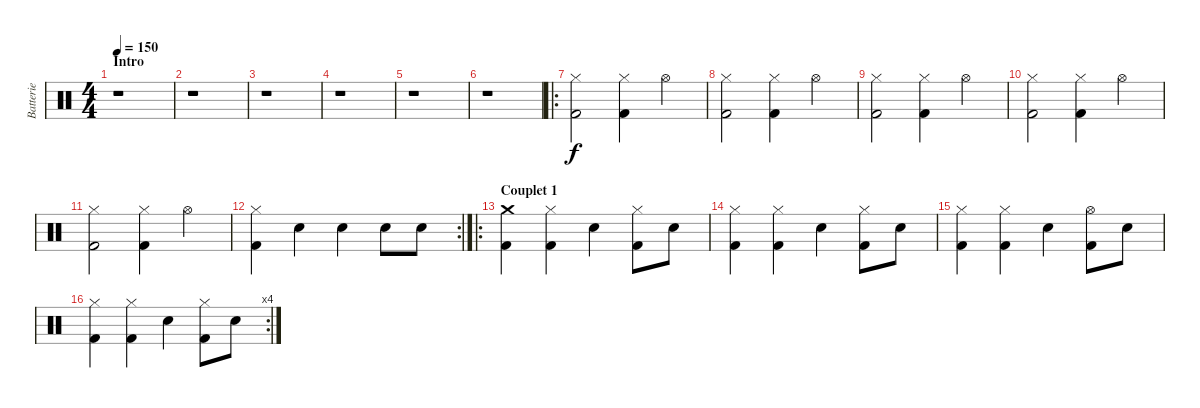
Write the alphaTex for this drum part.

\track ("Batterie" "Batterie") {instrument percussion}
\staff {score}
\articulation defaults
\ts (4 4)
\section ("" "Intro")
\tempo 150
\clef neutral
\ks c
r.1{dy f} |
r.1 |
r.1 |
r.1 |
r.1 |
r.1 |
\ro
("Hi-Hat (closed)" "Kick (hit) 2").2 ("Hi-Hat (closed)" "Kick (hit) 2").4 "Hi-Hat (open)".4 |
("Hi-Hat (closed)" "Kick (hit) 2").2 ("Hi-Hat (closed)" "Kick (hit) 2").4 "Hi-Hat (open)".4 |
("Hi-Hat (closed)" "Kick (hit) 2").2 ("Hi-Hat (closed)" "Kick (hit) 2").4 "Hi-Hat (open)".4 |
("Hi-Hat (closed)" "Kick (hit) 2").2 ("Hi-Hat (closed)" "Kick (hit) 2").4 "Hi-Hat (open)".4 |
("Hi-Hat (closed)" "Kick (hit) 2").2 ("Hi-Hat (closed)" "Kick (hit) 2").4 "Hi-Hat (open)".4 |
\rc 2
("Hi-Hat (closed)" "Kick (hit) 2").4 "Snare (hit) 2".4 "Snare (hit) 2".4 "Snare (hit) 2".8 "Snare (hit) 2".8 |
\ro
\section ("" "Couplet 1")
("Crash medium (hit)" "Kick (hit) 2").4 ("Hi-Hat (closed)" "Kick (hit) 2").4 "Snare (hit) 2".4 ("Hi-Hat (closed)" "Kick (hit) 2").8 "Snare (hit) 2".8 |
("Hi-Hat (closed)" "Kick (hit) 2").4 ("Hi-Hat (closed)" "Kick (hit) 2").4 "Snare (hit) 2".4 ("Hi-Hat (closed)" "Kick (hit) 2").8 "Snare (hit) 2".8 |
("Hi-Hat (closed)" "Kick (hit) 2").4 ("Hi-Hat (closed)" "Kick (hit) 2").4 "Snare (hit) 2".4 ("Hi-Hat (open)" "Kick (hit) 2").8 "Snare (hit) 2".8 |
\rc 4
("Hi-Hat (closed)" "Kick (hit) 2").4 ("Hi-Hat (closed)" "Kick (hit) 2").4 "Snare (hit) 2".4 ("Hi-Hat (closed)" "Kick (hit) 2").8 "Snare (hit) 2".8
